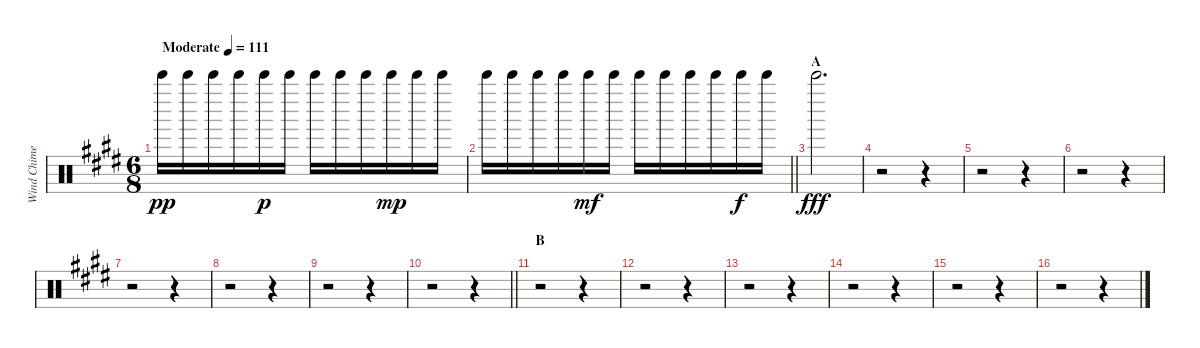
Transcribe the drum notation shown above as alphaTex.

\track ("Wind Chime" "Wind Chime") {instrument percussion}
\staff {score}
\articulation defaults
\ts (6 8)
\tempo (111 "Moderate")
\clef neutral
\ks e "Bell Tree (hit)".16{dy pp} "Bell Tree (hit)".16 "Bell Tree (hit)".16 "Bell Tree (hit)".16 "Bell Tree (hit)".16{dy p} "Bell Tree (hit)".16 "Bell Tree (hit)".16 "Bell Tree (hit)".16 "Bell Tree (hit)".16 "Bell Tree (hit)".16{dy mp} "Bell Tree (hit)".16 "Bell Tree (hit)".16
|
\barLineRight lightlight "Bell Tree (hit)".16 "Bell Tree (hit)".16 "Bell Tree (hit)".16 "Bell Tree (hit)".16 "Bell Tree (hit)".16{dy mf} "Bell Tree (hit)".16 "Bell Tree (hit)".16 "Bell Tree (hit)".16 "Bell Tree (hit)".16 "Bell Tree (hit)".16 "Bell Tree (hit)".16{dy f} "Bell Tree (hit)".16
|
\section ("" "A")
"Bell Tree (hit)".2{d dy fff} |
r.2 r.4 |
r.2 r.4 |
r.2 r.4 |
r.2 r.4 |
r.2 r.4 |
r.2 r.4 |
\barLineRight lightlight
r.2 r.4 |
\section ("" "B")
r.2 r.4 |
r.2 r.4 |
r.2 r.4 |
r.2 r.4 |
r.2 r.4 |
r.2 r.4
